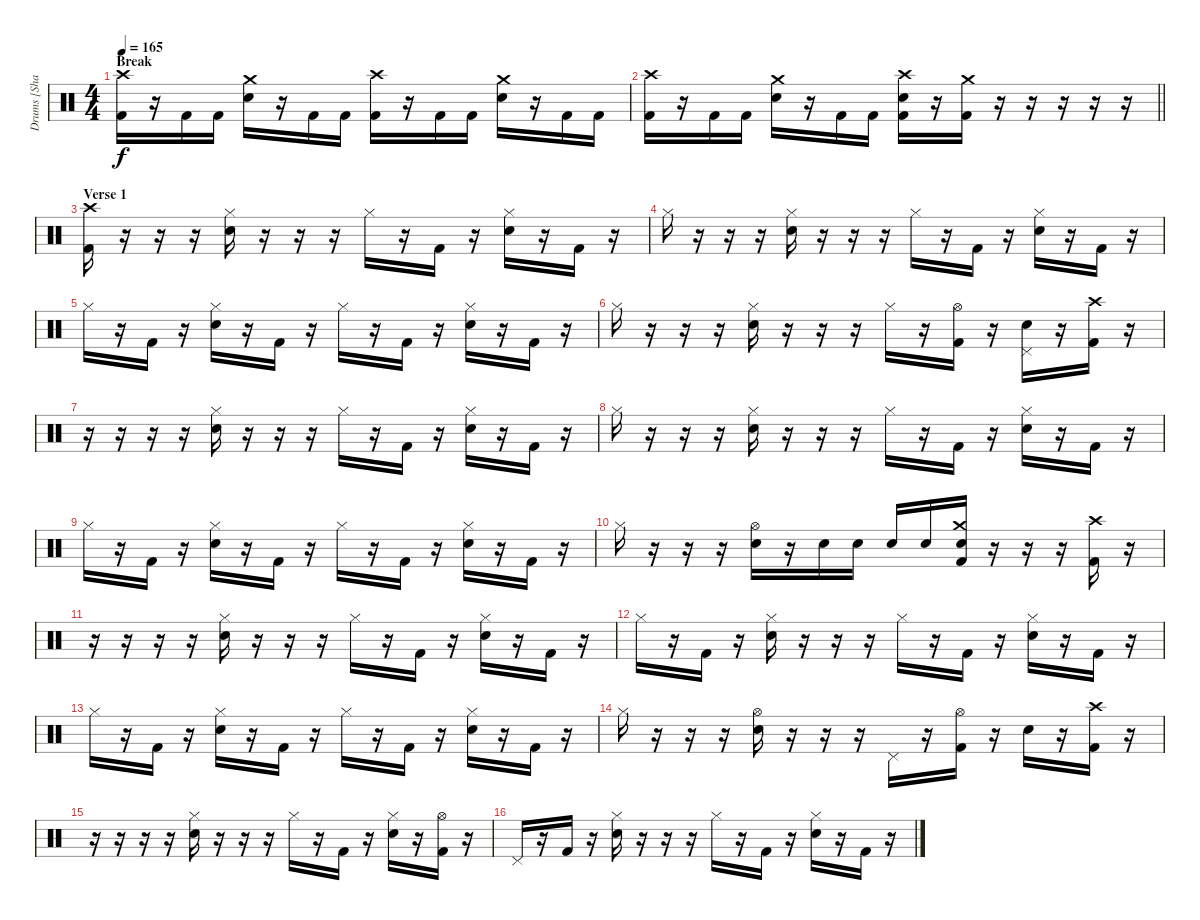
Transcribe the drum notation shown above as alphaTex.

\track ("Drums [Shawn Drover]" "Drums [Sha") {instrument percussion}
\staff {score}
\articulation defaults
\ts (4 4)
\section ("" "Break")
\tempo 165
\clef neutral
\ks c
("Crash high (hit)" "Kick (hit) 2").16{dy f} r.16 "Kick (hit) 2".16 "Kick (hit) 2".16 ("Crash medium (hit)" "Electric Snare (hit)").16 r.16 "Kick (hit) 2".16 "Kick (hit) 2".16 ("Crash high (hit)" "Kick (hit) 2").16 r.16 "Kick (hit) 2".16 "Kick (hit) 2".16 ("Crash medium (hit)" "Electric Snare (hit)").16 r.16 "Kick (hit) 2".16 "Kick (hit) 2".16 |
\barLineRight lightlight
("Crash high (hit)" "Kick (hit) 2").16 r.16 "Kick (hit) 2".16 "Kick (hit) 2".16 ("Crash medium (hit)" "Electric Snare (hit)").16 r.16 "Kick (hit) 2".16 "Kick (hit) 2".16 ("Crash high (hit)" "Electric Snare (hit)" "Kick (hit) 2").16 r.16 ("Crash medium (hit)" "Kick (hit) 2").16 r.16 r.16 r.16 r.16 r.16 |
\section ("" "Verse 1")
("Crash high (hit)" "Kick (hit) 2").16 r.16 r.16 r.16 ("Hi-Hat (closed)" "Electric Snare (hit)").16 r.16 r.16 r.16 "Hi-Hat (closed)".16 r.16 "Kick (hit) 2".16 r.16 ("Hi-Hat (closed)" "Electric Snare (hit)").16 r.16 "Kick (hit) 2".16 r.16 |
"Hi-Hat (closed)".16 r.16 r.16 r.16 ("Hi-Hat (closed)" "Electric Snare (hit)").16 r.16 r.16 r.16 "Hi-Hat (closed)".16 r.16 "Kick (hit) 2".16 r.16 ("Hi-Hat (closed)" "Electric Snare (hit)").16 r.16 "Kick (hit) 2".16 r.16 |
"Hi-Hat (closed)".16 r.16 "Kick (hit) 2".16 r.16 ("Hi-Hat (closed)" "Electric Snare (hit)").16 r.16 "Kick (hit) 2".16 r.16 "Hi-Hat (closed)".16 r.16 "Kick (hit) 2".16 r.16 ("Hi-Hat (closed)" "Electric Snare (hit)").16 r.16 "Kick (hit) 2".16 r.16 |
"Hi-Hat (closed)".16 r.16 r.16 r.16 ("Hi-Hat (closed)" "Electric Snare (hit)").16 r.16 r.16 r.16 "Hi-Hat (closed)".16 r.16 ("Hi-Hat (open)" "Kick (hit) 2").16 r.16 ("Pedal Hi-Hat (hit)" "Electric Snare (hit)").16 r.16 ("Crash high (hit)" "Kick (hit) 2").16 r.16 |
r.16 r.16 r.16 r.16 ("Hi-Hat (closed)" "Electric Snare (hit)").16 r.16 r.16 r.16 "Hi-Hat (closed)".16 r.16 "Kick (hit) 2".16 r.16 ("Hi-Hat (closed)" "Electric Snare (hit)").16 r.16 "Kick (hit) 2".16 r.16 |
"Hi-Hat (closed)".16 r.16 r.16 r.16 ("Hi-Hat (closed)" "Electric Snare (hit)").16 r.16 r.16 r.16 "Hi-Hat (closed)".16 r.16 "Kick (hit) 2".16 r.16 ("Hi-Hat (closed)" "Electric Snare (hit)").16 r.16 "Kick (hit) 2".16 r.16 |
"Hi-Hat (closed)".16 r.16 "Kick (hit) 2".16 r.16 ("Hi-Hat (closed)" "Electric Snare (hit)").16 r.16 "Kick (hit) 2".16 r.16 "Hi-Hat (closed)".16 r.16 "Kick (hit) 2".16 r.16 ("Hi-Hat (closed)" "Electric Snare (hit)").16 r.16 "Kick (hit) 2".16 r.16 |
"Hi-Hat (closed)".16 r.16 r.16 r.16 ("Hi-Hat (open)" "Electric Snare (hit)").16 r.16 "Electric Snare (hit)".16 "Electric Snare (hit)".16 "Electric Snare (hit)".16 "Electric Snare (hit)".16 ("Crash medium (hit)" "Electric Snare (hit)" "Kick (hit) 2").16 r.16 r.16 r.16 ("Crash high (hit)" "Kick (hit) 2").16 r.16 |
r.16 r.16 r.16 r.16 ("Hi-Hat (closed)" "Electric Snare (hit)").16 r.16 r.16 r.16 "Hi-Hat (closed)".16 r.16 "Kick (hit) 2".16 r.16 ("Hi-Hat (closed)" "Electric Snare (hit)").16 r.16 "Kick (hit) 2".16 r.16 |
"Hi-Hat (closed)".16 r.16 "Kick (hit) 2".16 r.16 ("Hi-Hat (closed)" "Electric Snare (hit)").16 r.16 r.16 r.16 "Hi-Hat (closed)".16 r.16 "Kick (hit) 2".16 r.16 ("Hi-Hat (closed)" "Electric Snare (hit)").16 r.16 "Kick (hit) 2".16 r.16 |
"Hi-Hat (closed)".16 r.16 "Kick (hit) 2".16 r.16 ("Hi-Hat (closed)" "Electric Snare (hit)").16 r.16 "Kick (hit) 2".16 r.16 "Hi-Hat (closed)".16 r.16 "Kick (hit) 2".16 r.16 ("Hi-Hat (closed)" "Electric Snare (hit)").16 r.16 "Kick (hit) 2".16 r.16 |
"Hi-Hat (closed)".16 r.16 r.16 r.16 ("Hi-Hat (open)" "Electric Snare (hit)").16 r.16 r.16 r.16 "Pedal Hi-Hat (hit)".16 r.16 ("Hi-Hat (open)" "Kick (hit) 2").16 r.16 "Electric Snare (hit)".16 r.16 ("Crash high (hit)" "Kick (hit) 2").16 r.16 |
r.16 r.16 r.16 r.16 ("Hi-Hat (closed)" "Electric Snare (hit)").16 r.16 r.16 r.16 "Hi-Hat (closed)".16 r.16 "Kick (hit) 2".16 r.16 ("Hi-Hat (closed)" "Electric Snare (hit)").16 r.16 ("Hi-Hat (open)" "Kick (hit) 2").16 r.16 |
"Pedal Hi-Hat (hit)".16 r.16 "Kick (hit) 2".16 r.16 ("Hi-Hat (closed)" "Electric Snare (hit)").16 r.16 r.16 r.16 "Hi-Hat (closed)".16 r.16 "Kick (hit) 2".16 r.16 ("Hi-Hat (closed)" "Electric Snare (hit)").16 r.16 "Kick (hit) 2".16 r.16
